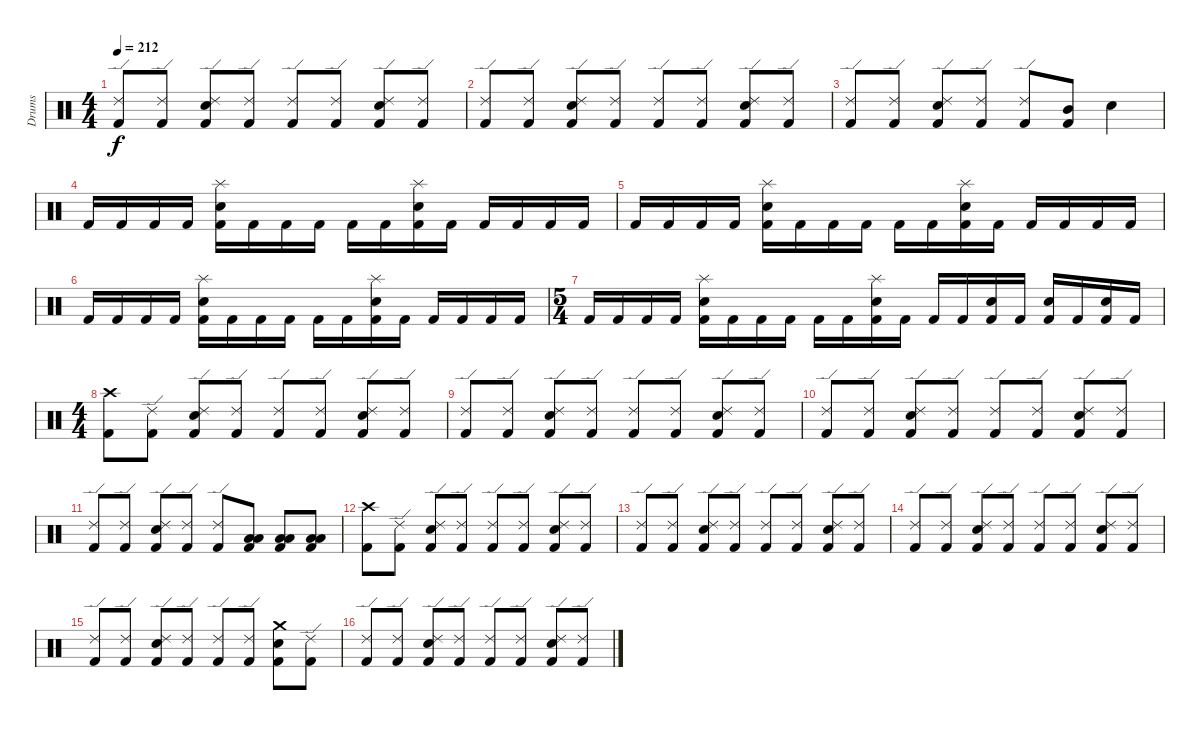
\track ("Drums" "Drums") {instrument percussion}
\staff {score}
\articulation defaults
\ts (4 4)
\tempo 212
\clef neutral
\ks c
("Kick (hit) 2" "Ride (edge) 2").8{dy f} ("Kick (hit) 2" "Ride (edge) 2").8 ("Kick (hit) 2" "Snare (hit) 2" "Ride (edge) 2").8 ("Kick (hit) 2" "Ride (edge) 2").8 ("Kick (hit) 2" "Ride (edge) 2").8 ("Kick (hit) 2" "Ride (edge) 2").8 ("Kick (hit) 2" "Snare (hit) 2" "Ride (edge) 2").8 ("Kick (hit) 2" "Ride (edge) 2").8 |
("Kick (hit) 2" "Ride (edge) 2").8 ("Kick (hit) 2" "Ride (edge) 2").8 ("Kick (hit) 2" "Snare (hit) 2" "Ride (edge) 2").8 ("Kick (hit) 2" "Ride (edge) 2").8 ("Kick (hit) 2" "Ride (edge) 2").8 ("Kick (hit) 2" "Ride (edge) 2").8 ("Kick (hit) 2" "Snare (hit) 2" "Ride (edge) 2").8 ("Kick (hit) 2" "Ride (edge) 2").8 |
("Kick (hit) 2" "Ride (edge) 2").8 ("Kick (hit) 2" "Ride (edge) 2").8 ("Kick (hit) 2" "Snare (hit) 2" "Ride (edge) 2").8 ("Kick (hit) 2" "Ride (edge) 2").8 ("Kick (hit) 2" "Ride (edge) 2").8 ("Kick (hit) 2" "Mid Tom (hit)").8 "Snare (hit) 2".4 |
"Kick (hit) 2".16 "Kick (hit) 2".16 "Kick (hit) 2".16 "Kick (hit) 2".16 ("Kick (hit) 2" "Snare (hit) 2" "Splash (hit)").16 "Kick (hit) 2".16 "Kick (hit) 2".16 "Kick (hit) 2".16 "Kick (hit) 2".16 "Kick (hit) 2".16 ("Kick (hit) 2" "Snare (hit) 2" "Splash (hit)").16 "Kick (hit) 2".16 "Kick (hit) 2".16 "Kick (hit) 2".16 "Kick (hit) 2".16 "Kick (hit) 2".16 |
"Kick (hit) 2".16 "Kick (hit) 2".16 "Kick (hit) 2".16 "Kick (hit) 2".16 ("Kick (hit) 2" "Snare (hit) 2" "Splash (hit)").16 "Kick (hit) 2".16 "Kick (hit) 2".16 "Kick (hit) 2".16 "Kick (hit) 2".16 "Kick (hit) 2".16 ("Kick (hit) 2" "Snare (hit) 2" "Splash (hit)").16 "Kick (hit) 2".16 "Kick (hit) 2".16 "Kick (hit) 2".16 "Kick (hit) 2".16 "Kick (hit) 2".16 |
"Kick (hit) 2".16 "Kick (hit) 2".16 "Kick (hit) 2".16 "Kick (hit) 2".16 ("Kick (hit) 2" "Snare (hit) 2" "Splash (hit)").16 "Kick (hit) 2".16 "Kick (hit) 2".16 "Kick (hit) 2".16 "Kick (hit) 2".16 "Kick (hit) 2".16 ("Kick (hit) 2" "Snare (hit) 2" "Splash (hit)").16 "Kick (hit) 2".16 "Kick (hit) 2".16 "Kick (hit) 2".16 "Kick (hit) 2".16 "Kick (hit) 2".16 |
\ts (5 4)
"Kick (hit) 2".16 "Kick (hit) 2".16 "Kick (hit) 2".16 "Kick (hit) 2".16 ("Kick (hit) 2" "Snare (hit) 2" "Splash (hit)").16 "Kick (hit) 2".16 "Kick (hit) 2".16 "Kick (hit) 2".16 "Kick (hit) 2".16 "Kick (hit) 2".16 ("Kick (hit) 2" "Snare (hit) 2" "Splash (hit)").16 "Kick (hit) 2".16 "Kick (hit) 2".16 "Kick (hit) 2".16 ("Kick (hit) 2" "Snare (hit) 2").16 "Kick (hit) 2".16 ("Kick (hit) 2" "Snare (hit) 2").16 "Kick (hit) 2".16 ("Kick (hit) 2" "Snare (hit) 2").16 "Kick (hit) 2".16 |
\ts (4 4)
("Kick (hit) 2" "Crash high (hit)").8 ("Kick (hit) 2" "Ride (edge) 2").8 ("Kick (hit) 2" "Snare (hit) 2" "Ride (edge) 2").8 ("Kick (hit) 2" "Ride (edge) 2").8 ("Kick (hit) 2" "Ride (edge) 2").8 ("Kick (hit) 2" "Ride (edge) 2").8 ("Kick (hit) 2" "Snare (hit) 2" "Ride (edge) 2").8 ("Kick (hit) 2" "Ride (edge) 2").8 |
("Kick (hit) 2" "Ride (edge) 2").8 ("Kick (hit) 2" "Ride (edge) 2").8 ("Kick (hit) 2" "Snare (hit) 2" "Ride (edge) 2").8 ("Kick (hit) 2" "Ride (edge) 2").8 ("Kick (hit) 2" "Ride (edge) 2").8 ("Kick (hit) 2" "Ride (edge) 2").8 ("Kick (hit) 2" "Snare (hit) 2" "Ride (edge) 2").8 ("Kick (hit) 2" "Ride (edge) 2").8 |
("Kick (hit) 2" "Ride (edge) 2").8 ("Kick (hit) 2" "Ride (edge) 2").8 ("Kick (hit) 2" "Snare (hit) 2" "Ride (edge) 2").8 ("Kick (hit) 2" "Ride (edge) 2").8 ("Kick (hit) 2" "Ride (edge) 2").8 ("Kick (hit) 2" "Ride (edge) 2").8 ("Kick (hit) 2" "Snare (hit) 2" "Ride (edge) 2").8 ("Kick (hit) 2" "Ride (edge) 2").8 |
("Kick (hit) 2" "Ride (edge) 2").8 ("Kick (hit) 2" "Ride (edge) 2").8 ("Kick (hit) 2" "Snare (hit) 2" "Ride (edge) 2").8 ("Kick (hit) 2" "Ride (edge) 2").8 ("Kick (hit) 2" "Ride (edge) 2").8 ("Kick (hit) 2" "Low Tom (hit)" "Low Tom (hit)").8 ("Kick (hit) 2" "Low Tom (hit)" "Low Tom (hit)").8 ("Kick (hit) 2" "Low Tom (hit)" "Low Tom (hit)").8 |
("Kick (hit) 2" "Crash high (hit)").8 ("Kick (hit) 2" "Ride (edge) 2").8 ("Kick (hit) 2" "Snare (hit) 2" "Ride (edge) 2").8 ("Kick (hit) 2" "Ride (edge) 2").8 ("Kick (hit) 2" "Ride (edge) 2").8 ("Kick (hit) 2" "Ride (edge) 2").8 ("Kick (hit) 2" "Snare (hit) 2" "Ride (edge) 2").8 ("Kick (hit) 2" "Ride (edge) 2").8 |
("Kick (hit) 2" "Ride (edge) 2").8 ("Kick (hit) 2" "Ride (edge) 2").8 ("Kick (hit) 2" "Snare (hit) 2" "Ride (edge) 2").8 ("Kick (hit) 2" "Ride (edge) 2").8 ("Kick (hit) 2" "Ride (edge) 2").8 ("Kick (hit) 2" "Ride (edge) 2").8 ("Kick (hit) 2" "Snare (hit) 2" "Ride (edge) 2").8 ("Kick (hit) 2" "Ride (edge) 2").8 |
("Kick (hit) 2" "Ride (edge) 2").8 ("Kick (hit) 2" "Ride (edge) 2").8 ("Kick (hit) 2" "Snare (hit) 2" "Ride (edge) 2").8 ("Kick (hit) 2" "Ride (edge) 2").8 ("Kick (hit) 2" "Ride (edge) 2").8 ("Kick (hit) 2" "Ride (edge) 2").8 ("Kick (hit) 2" "Snare (hit) 2" "Ride (edge) 2").8 ("Kick (hit) 2" "Ride (edge) 2").8 |
("Kick (hit) 2" "Ride (edge) 2").8 ("Kick (hit) 2" "Ride (edge) 2").8 ("Kick (hit) 2" "Snare (hit) 2" "Ride (edge) 2").8 ("Kick (hit) 2" "Ride (edge) 2").8 ("Kick (hit) 2" "Ride (edge) 2").8 ("Kick (hit) 2" "Ride (edge) 2").8 ("Kick (hit) 2" "Snare (hit) 2" "Crash medium (hit)").8 ("Kick (hit) 2" "Ride (edge) 2").8 |
("Kick (hit) 2" "Ride (edge) 2").8 ("Kick (hit) 2" "Ride (edge) 2").8 ("Kick (hit) 2" "Snare (hit) 2" "Ride (edge) 2").8 ("Kick (hit) 2" "Ride (edge) 2").8 ("Kick (hit) 2" "Ride (edge) 2").8 ("Kick (hit) 2" "Ride (edge) 2").8 ("Kick (hit) 2" "Snare (hit) 2" "Ride (edge) 2").8 ("Kick (hit) 2" "Ride (edge) 2").8
